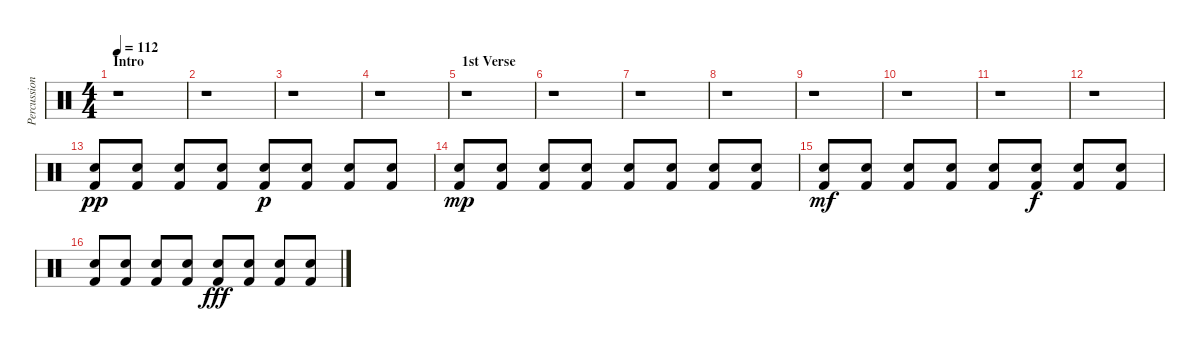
\track ("Percussion" "Percussion") {instrument percussion}
\staff {score}
\articulation defaults
\ts (4 4)
\section ("" "Intro")
\tempo 112
\clef neutral
\ks c
r.1{dy pp} |
r.1 |
r.1 |
r.1 |
\section ("" "1st Verse")
r.1 |
r.1 |
r.1 |
r.1 |
r.1 |
r.1 |
r.1 |
r.1 |
("Kick (hit) 2" "Snare (hit) 2").8 ("Kick (hit) 2" "Snare (hit) 2").8 ("Kick (hit) 2" "Snare (hit) 2").8 ("Kick (hit) 2" "Snare (hit) 2").8 ("Kick (hit) 2" "Snare (hit) 2").8{dy p} ("Kick (hit) 2" "Snare (hit) 2").8 ("Kick (hit) 2" "Snare (hit) 2").8 ("Kick (hit) 2" "Snare (hit) 2").8 |
("Kick (hit) 2" "Snare (hit) 2").8{dy mp} ("Kick (hit) 2" "Snare (hit) 2").8 ("Kick (hit) 2" "Snare (hit) 2").8 ("Kick (hit) 2" "Snare (hit) 2").8 ("Kick (hit) 2" "Snare (hit) 2").8 ("Kick (hit) 2" "Snare (hit) 2").8 ("Kick (hit) 2" "Snare (hit) 2").8 ("Kick (hit) 2" "Snare (hit) 2").8 |
("Kick (hit) 2" "Snare (hit) 2").8{dy mf} ("Kick (hit) 2" "Snare (hit) 2").8 ("Kick (hit) 2" "Snare (hit) 2").8 ("Kick (hit) 2" "Snare (hit) 2").8 ("Kick (hit) 2" "Snare (hit) 2").8 ("Kick (hit) 2" "Snare (hit) 2").8{dy f} ("Kick (hit) 2" "Snare (hit) 2").8 ("Kick (hit) 2" "Snare (hit) 2").8 |
("Kick (hit) 2" "Snare (hit) 2").8 ("Kick (hit) 2" "Snare (hit) 2").8 ("Kick (hit) 2" "Snare (hit) 2").8 ("Kick (hit) 2" "Snare (hit) 2").8 ("Kick (hit) 2" "Snare (hit) 2").8{dy fff} ("Kick (hit) 2" "Snare (hit) 2").8 ("Kick (hit) 2" "Snare (hit) 2").8 ("Kick (hit) 2" "Snare (hit) 2").8
